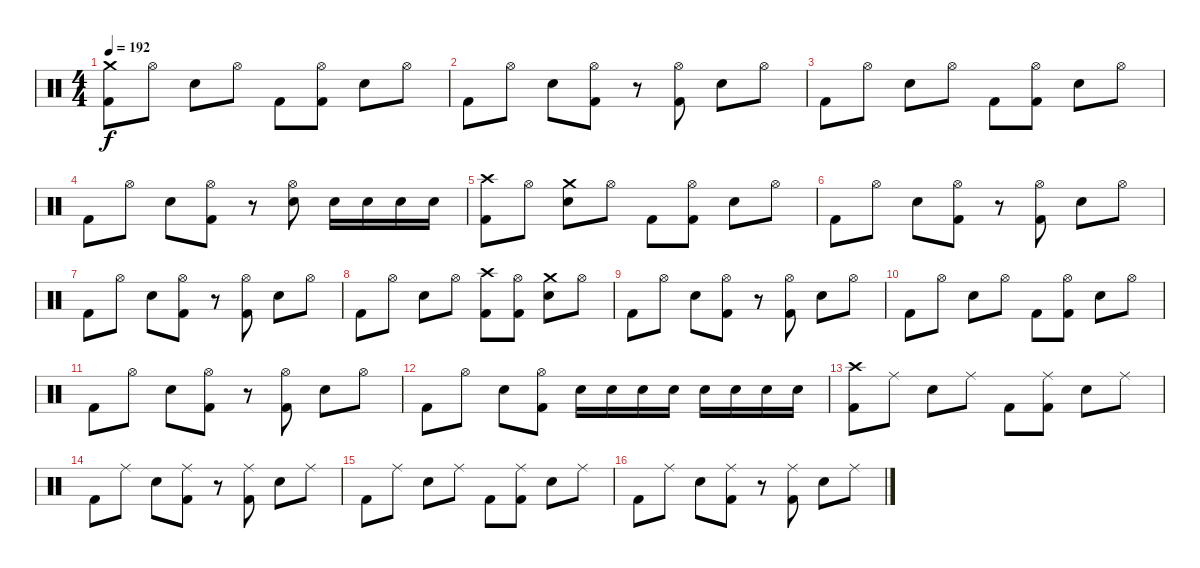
\track "" {instrument percussion}
\staff {score}
\articulation defaults
\ts (4 4)
\tempo 192
\clef neutral
\ks c
("Crash medium (hit)" "Kick (hit) 2").8{dy f} "Hi-Hat (open)".8 "Snare (hit) 2".8 "Hi-Hat (open)".8 "Kick (hit) 2".8 ("Hi-Hat (open)" "Kick (hit) 2").8 "Snare (hit) 2".8 "Hi-Hat (open)".8 |
"Kick (hit) 2".8 "Hi-Hat (open)".8 "Snare (hit) 2".8 ("Hi-Hat (open)" "Kick (hit) 2").8 r.8 ("Hi-Hat (open)" "Kick (hit) 2").8 "Snare (hit) 2".8 "Hi-Hat (open)".8 |
"Kick (hit) 2".8 "Hi-Hat (open)".8 "Snare (hit) 2".8 "Hi-Hat (open)".8 "Kick (hit) 2".8 ("Hi-Hat (open)" "Kick (hit) 2").8 "Snare (hit) 2".8 "Hi-Hat (open)".8 |
"Kick (hit) 2".8 "Hi-Hat (open)".8 "Snare (hit) 2".8 ("Hi-Hat (open)" "Kick (hit) 2").8 r.8 ("Hi-Hat (open)" "Snare (hit) 2").8 "Snare (hit) 2".16 "Snare (hit) 2".16 "Snare (hit) 2".16 "Snare (hit) 2".16 |
("Crash high (hit)" "Kick (hit) 2").8 "Hi-Hat (open)".8 ("Crash medium (hit)" "Snare (hit) 2").8 "Hi-Hat (open)".8 "Kick (hit) 2".8 ("Hi-Hat (open)" "Kick (hit) 2").8 "Snare (hit) 2".8 "Hi-Hat (open)".8 |
"Kick (hit) 2".8 "Hi-Hat (open)".8 "Snare (hit) 2".8 ("Hi-Hat (open)" "Kick (hit) 2").8 r.8 ("Hi-Hat (open)" "Kick (hit) 2").8 "Snare (hit) 2".8 "Hi-Hat (open)".8 |
"Kick (hit) 2".8 "Hi-Hat (open)".8 "Snare (hit) 2".8 ("Hi-Hat (open)" "Kick (hit) 2").8 r.8 ("Hi-Hat (open)" "Kick (hit) 2").8 "Snare (hit) 2".8 "Hi-Hat (open)".8 |
"Kick (hit) 2".8 "Hi-Hat (open)".8 "Snare (hit) 2".8 "Hi-Hat (open)".8 ("Crash high (hit)" "Kick (hit) 2").8 ("Hi-Hat (open)" "Kick (hit) 2").8 ("Crash medium (hit)" "Snare (hit) 2").8 "Hi-Hat (open)".8 |
"Kick (hit) 2".8 "Hi-Hat (open)".8 "Snare (hit) 2".8 ("Hi-Hat (open)" "Kick (hit) 2").8 r.8 ("Hi-Hat (open)" "Kick (hit) 2").8 "Snare (hit) 2".8 "Hi-Hat (open)".8 |
"Kick (hit) 2".8 "Hi-Hat (open)".8 "Snare (hit) 2".8 "Hi-Hat (open)".8 "Kick (hit) 2".8 ("Hi-Hat (open)" "Kick (hit) 2").8 "Snare (hit) 2".8 "Hi-Hat (open)".8 |
"Kick (hit) 2".8 "Hi-Hat (open)".8 "Snare (hit) 2".8 ("Hi-Hat (open)" "Kick (hit) 2").8 r.8 ("Hi-Hat (open)" "Kick (hit) 2").8 "Snare (hit) 2".8 "Hi-Hat (open)".8 |
"Kick (hit) 2".8 "Hi-Hat (open)".8 "Snare (hit) 2".8 ("Hi-Hat (open)" "Kick (hit) 2").8 "Electric Snare (hit)".16 "Electric Snare (hit)".16 "Electric Snare (hit)".16 "Electric Snare (hit)".16 "Snare (hit) 2".16 "Snare (hit) 2".16 "Snare (hit) 2".16 "Snare (hit) 2".16 |
("Crash high (hit)" "Kick (hit) 2").8 "Ride (middle)".8 "Snare (hit) 2".8 "Ride (middle)".8 "Kick (hit) 2".8 ("Ride (middle)" "Kick (hit) 2").8 "Snare (hit) 2".8 "Ride (middle)".8 |
"Kick (hit) 2".8 "Ride (middle)".8 "Snare (hit) 2".8 ("Ride (middle)" "Kick (hit) 2").8 r.8 ("Ride (middle)" "Kick (hit) 2").8 "Snare (hit) 2".8 "Ride (middle)".8 |
"Kick (hit) 2".8 "Ride (middle)".8 "Snare (hit) 2".8 "Ride (middle)".8 "Kick (hit) 2".8 ("Ride (middle)" "Kick (hit) 2").8 "Snare (hit) 2".8 "Ride (middle)".8 |
"Kick (hit) 2".8 "Ride (middle)".8 "Snare (hit) 2".8 ("Ride (middle)" "Kick (hit) 2").8 r.8 ("Ride (middle)" "Kick (hit) 2").8 "Snare (hit) 2".8 "Ride (middle)".8
